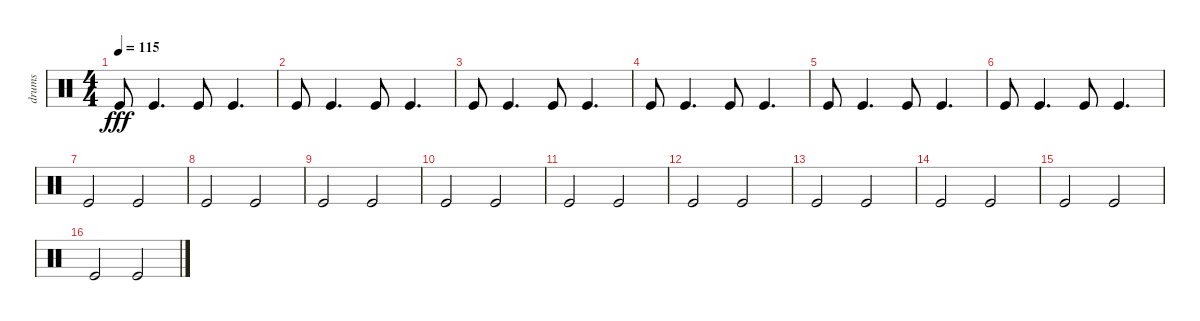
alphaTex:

\track ("drums" "drums") {instrument percussion}
\staff {score}
\articulation defaults
\ts (4 4)
\tempo 115
\clef neutral
\ks c "Kick (hit)".8{dy fff} "Kick (hit)".4{d} "Kick (hit)".8 "Kick (hit)".4{d}
|
"Kick (hit)".8 "Kick (hit)".4{d} "Kick (hit)".8 "Kick (hit)".4{d} |
"Kick (hit)".8 "Kick (hit)".4{d} "Kick (hit)".8 "Kick (hit)".4{d} |
"Kick (hit)".8 "Kick (hit)".4{d} "Kick (hit)".8 "Kick (hit)".4{d} |
"Kick (hit)".8 "Kick (hit)".4{d} "Kick (hit)".8 "Kick (hit)".4{d} |
"Kick (hit)".8 "Kick (hit)".4{d} "Kick (hit)".8 "Kick (hit)".4{d} |
"Kick (hit)".2 "Kick (hit)".2 |
"Kick (hit)".2 "Kick (hit)".2 |
"Kick (hit)".2 "Kick (hit)".2 |
"Kick (hit)".2 "Kick (hit)".2 |
"Kick (hit)".2 "Kick (hit)".2 |
"Kick (hit)".2 "Kick (hit)".2 |
"Kick (hit)".2 "Kick (hit)".2 |
"Kick (hit)".2 "Kick (hit)".2 |
"Kick (hit)".2 "Kick (hit)".2 |
"Kick (hit)".2 "Kick (hit)".2
